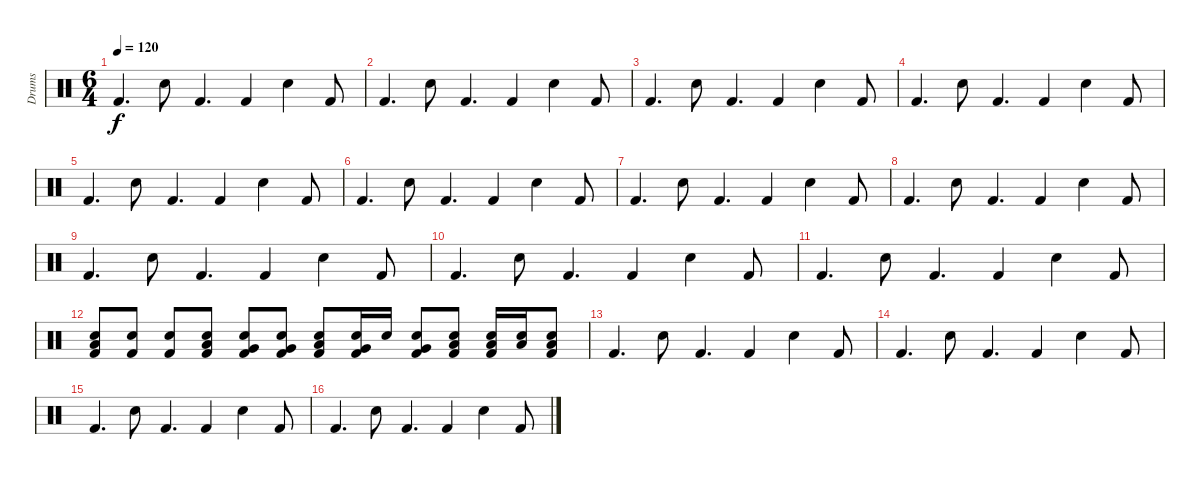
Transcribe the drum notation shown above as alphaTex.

\track ("Drums" "Drums") {instrument percussion}
\staff {score}
\articulation defaults
\ts (6 4)
\tempo 120
\clef neutral
\ks c "Kick (hit) 2".4{d dy f} "Snare (hit) 2".8 "Kick (hit) 2".4{d} "Kick (hit) 2".4 "Snare (hit) 2".4 "Kick (hit) 2".8
|
"Kick (hit) 2".4{d} "Snare (hit) 2".8 "Kick (hit) 2".4{d} "Kick (hit) 2".4 "Snare (hit) 2".4 "Kick (hit) 2".8 |
"Kick (hit) 2".4{d} "Snare (hit) 2".8 "Kick (hit) 2".4{d} "Kick (hit) 2".4 "Snare (hit) 2".4 "Kick (hit) 2".8 |
"Kick (hit) 2".4{d} "Snare (hit) 2".8 "Kick (hit) 2".4{d} "Kick (hit) 2".4 "Snare (hit) 2".4 "Kick (hit) 2".8 |
"Kick (hit) 2".4{d} "Snare (hit) 2".8 "Kick (hit) 2".4{d} "Kick (hit) 2".4 "Snare (hit) 2".4 "Kick (hit) 2".8 |
"Kick (hit) 2".4{d} "Snare (hit) 2".8 "Kick (hit) 2".4{d} "Kick (hit) 2".4 "Snare (hit) 2".4 "Kick (hit) 2".8 |
"Kick (hit) 2".4{d} "Snare (hit) 2".8 "Kick (hit) 2".4{d} "Kick (hit) 2".4 "Snare (hit) 2".4 "Kick (hit) 2".8 |
"Kick (hit) 2".4{d} "Snare (hit) 2".8 "Kick (hit) 2".4{d} "Kick (hit) 2".4 "Snare (hit) 2".4 "Kick (hit) 2".8 |
"Kick (hit) 2".4{d} "Snare (hit) 2".8 "Kick (hit) 2".4{d} "Kick (hit) 2".4 "Snare (hit) 2".4 "Kick (hit) 2".8 |
"Kick (hit) 2".4{d} "Snare (hit) 2".8 "Kick (hit) 2".4{d} "Kick (hit) 2".4 "Snare (hit) 2".4 "Kick (hit) 2".8 |
"Kick (hit) 2".4{d} "Snare (hit) 2".8 "Kick (hit) 2".4{d} "Kick (hit) 2".4 "Snare (hit) 2".4 "Kick (hit) 2".8 |
("Low Tom (hit)" "Snare (hit) 2" "Kick (hit) 2").8 ("Snare (hit) 2" "Kick (hit) 2").8 ("Snare (hit) 2" "Kick (hit) 2").8 ("Low Tom (hit)" "Snare (hit) 2" "Kick (hit) 2").8 ("Very Low Tom (hit)" "Snare (hit) 2" "Kick (hit) 2").8 ("Very Low Tom (hit)" "Snare (hit) 2" "Kick (hit) 2").8 ("Low Tom (hit)" "Snare (hit) 2" "Kick (hit) 2").8 ("Very Low Tom (hit)" "Snare (hit) 2" "Kick (hit) 2").16 "Snare (hit) 2".16 ("Very Low Tom (hit)" "Snare (hit) 2" "Kick (hit) 2").8 ("Low Tom (hit)" "Snare (hit) 2" "Kick (hit) 2").8 ("Low Tom (hit)" "Snare (hit) 2" "Kick (hit) 2").16 ("Low Tom (hit)" "Snare (hit) 2").16 ("Low Tom (hit)" "Snare (hit) 2" "Kick (hit) 2").8 |
"Kick (hit) 2".4{d} "Snare (hit) 2".8 "Kick (hit) 2".4{d} "Kick (hit) 2".4 "Snare (hit) 2".4 "Kick (hit) 2".8 |
"Kick (hit) 2".4{d} "Snare (hit) 2".8 "Kick (hit) 2".4{d} "Kick (hit) 2".4 "Snare (hit) 2".4 "Kick (hit) 2".8 |
"Kick (hit) 2".4{d} "Snare (hit) 2".8 "Kick (hit) 2".4{d} "Kick (hit) 2".4 "Snare (hit) 2".4 "Kick (hit) 2".8 |
"Kick (hit) 2".4{d} "Snare (hit) 2".8 "Kick (hit) 2".4{d} "Kick (hit) 2".4 "Snare (hit) 2".4 "Kick (hit) 2".8
